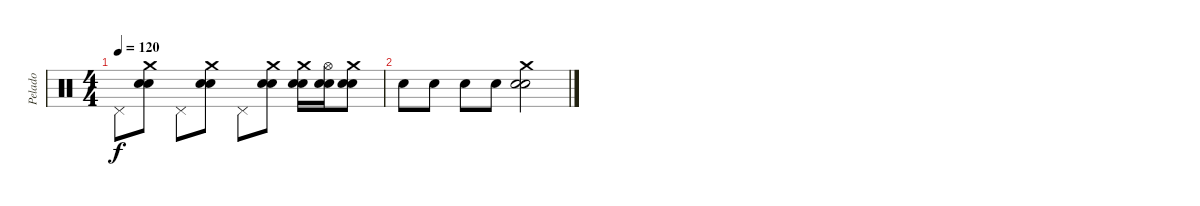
\track ("Pelado" "Pelado") {instrument percussion}
\staff {score}
\articulation defaults
\ts (4 4)
\tempo 120
\clef neutral
\ks c "Pedal Hi-Hat (hit)".8{dy f}
("Crash medium (hit)" "Electric Snare (hit)" "Electric Snare (hit)").8 "Pedal Hi-Hat (hit)".8 ("Crash medium (hit)" "Electric Snare (hit)" "Electric Snare (hit)").8 "Pedal Hi-Hat (hit)".8 ("Crash medium (hit)" "Electric Snare (hit)" "Electric Snare (hit)").8 ("Crash medium (hit)" "Electric Snare (hit)" "Electric Snare (hit)").16 ("Hi-Hat (open)" "Electric Snare (hit)" "Electric Snare (hit)").16 ("Crash medium (hit)" "Electric Snare (hit)" "Electric Snare (hit)").8 |
"Electric Snare (hit)".8 "Electric Snare (hit)".8 "Electric Snare (hit)".8 "Electric Snare (hit)".8 ("Crash medium (hit)" "Electric Snare (hit)" "Electric Snare (hit)").2
